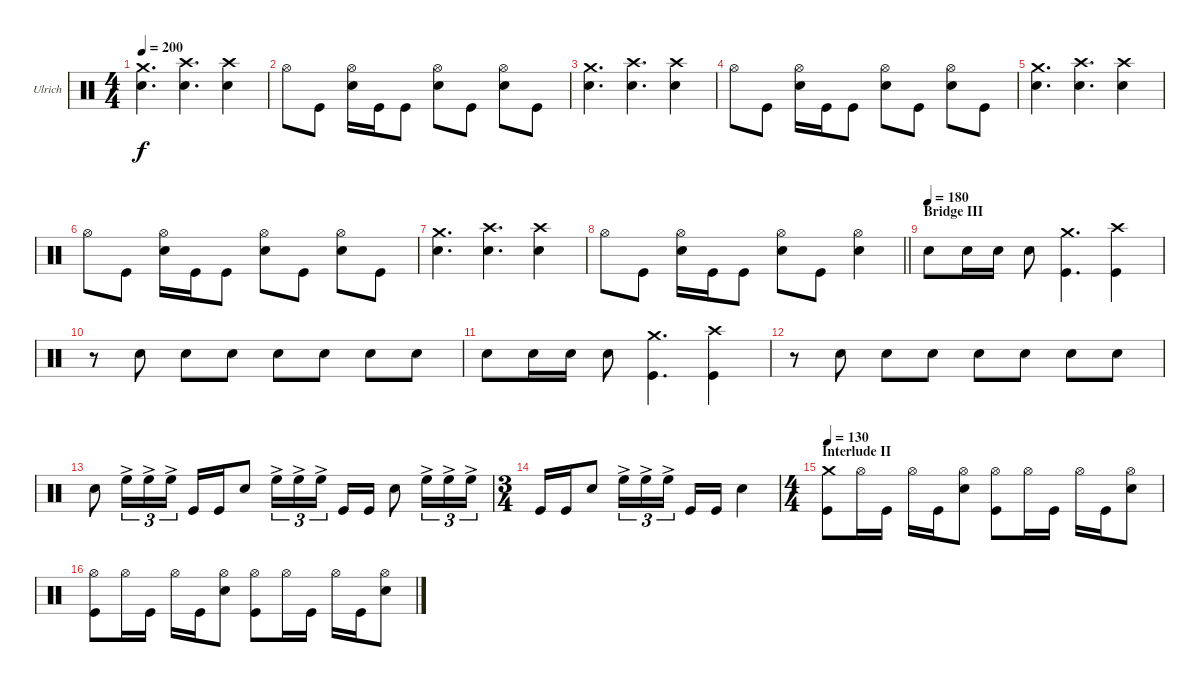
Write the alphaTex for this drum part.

\bracketExtendMode groupsimilarinstruments
\firstSystemTrackNameOrientation horizontal
\otherSystemsTrackNameOrientation horizontal
\track ("Drumkit" "Ulrich") {instrument percussion}
\staff {score}
\articulation defaults
\ts (4 4)
\tempo 200
\clef neutral
\ks c
("Crash medium (hit)" "Snare (hit) 2").4{d dy f} ("Crash high (hit)" "Snare (hit) 2").4{d} ("Crash high (hit)" "Snare (hit) 2").4 |
"Hi-Hat (open)".8 "Kick (hit)".8 ("Hi-Hat (open)" "Snare (hit) 2").16 "Kick (hit)".16 "Kick (hit)".8 ("Hi-Hat (open)" "Snare (hit) 2").8 "Kick (hit)".8 ("Hi-Hat (open)" "Snare (hit) 2").8 "Kick (hit)".8 |
("Crash medium (hit)" "Snare (hit) 2").4{d} ("Crash high (hit)" "Snare (hit) 2").4{d} ("Crash high (hit)" "Snare (hit) 2").4 |
"Hi-Hat (open)".8 "Kick (hit)".8 ("Hi-Hat (open)" "Snare (hit) 2").16 "Kick (hit)".16 "Kick (hit)".8 ("Hi-Hat (open)" "Snare (hit) 2").8 "Kick (hit)".8 ("Hi-Hat (open)" "Snare (hit) 2").8 "Kick (hit)".8 |
("Crash medium (hit)" "Snare (hit) 2").4{d} ("Crash high (hit)" "Snare (hit) 2").4{d} ("Crash high (hit)" "Snare (hit) 2").4 |
"Hi-Hat (open)".8 "Kick (hit)".8 ("Hi-Hat (open)" "Snare (hit) 2").16 "Kick (hit)".16 "Kick (hit)".8 ("Hi-Hat (open)" "Snare (hit) 2").8 "Kick (hit)".8 ("Hi-Hat (open)" "Snare (hit) 2").8 "Kick (hit)".8 |
("Crash medium (hit)" "Snare (hit) 2").4{d} ("Crash high (hit)" "Snare (hit) 2").4{d} ("Crash high (hit)" "Snare (hit) 2").4 |
\barLineRight lightlight "Hi-Hat (open)".8 "Kick (hit)".8
("Hi-Hat (open)" "Snare (hit) 2").16 "Kick (hit)".16 "Kick (hit)".8 ("Hi-Hat (open)" "Snare (hit) 2").8 "Kick (hit)".8 ("Hi-Hat (open)" "Snare (hit) 2").4 |
\section ("" "Bridge III")
\tempo (180)
"Snare (hit) 2".8 "Snare (hit) 2".16 "Snare (hit) 2".16 "Snare (hit) 2".8 ("Crash medium (hit)" "Kick (hit)").4{d} ("Crash high (hit)" "Kick (hit)").4 |
r.8 "Snare (hit) 2".8 "Snare (hit) 2".8 "Snare (hit) 2".8 "Snare (hit) 2".8 "Snare (hit) 2".8 "Snare (hit) 2".8 "Snare (hit) 2".8 |
"Snare (hit) 2".8 "Snare (hit) 2".16 "Snare (hit) 2".16 "Snare (hit) 2".8 ("Crash medium (hit)" "Kick (hit)").4{d} ("Crash high (hit)" "Kick (hit)").4 |
r.8 "Snare (hit) 2".8 "Snare (hit) 2".8 "Snare (hit) 2".8 "Snare (hit) 2".8 "Snare (hit) 2".8 "Snare (hit) 2".8 "Snare (hit) 2".8 |
"Snare (hit) 2".8 "High Floor Tom (hit)"{ac}.16{tu (3 2)} "High Floor Tom (hit)"{ac}.16{tu (3 2)} "High Floor Tom (hit)"{ac}.16{tu (3 2)} "Kick (hit)".16 "Kick (hit)".16 "Snare (hit) 2".8 "High Floor Tom (hit)"{ac}.16{tu (3 2)} "High Floor Tom (hit)"{ac}.16{tu (3 2)} "High Floor Tom (hit)"{ac}.16{tu (3 2)} "Kick (hit)".16 "Kick (hit)".16 "Snare (hit) 2".8 "High Floor Tom (hit)"{ac}.16{tu (3 2)} "High Floor Tom (hit)"{ac}.16{tu (3 2)} "High Floor Tom (hit)"{ac}.16{tu (3 2)} |
\ts (3 4)
\beaming (8 2 2 2)
"Kick (hit)".16 "Kick (hit)".16 "Snare (hit) 2".8 "High Floor Tom (hit)"{ac}.16{tu (3 2)} "High Floor Tom (hit)"{ac}.16{tu (3 2)} "High Floor Tom (hit)"{ac}.16{tu (3 2)} "Kick (hit)".16 "Kick (hit)".16 "Snare (hit) 2".4 |
\ts (4 4)
\beaming (8 2 2 2 2)
\section ("" "Interlude II")
\tempo 130
("Crash medium (hit)" "Kick (hit)").8 "Hi-Hat (open)".16 "Kick (hit)".16 "Hi-Hat (open)".16 "Kick (hit)".16 ("Hi-Hat (open)" "Snare (hit) 2").8 ("Hi-Hat (open)" "Kick (hit)").8 "Hi-Hat (open)".16 "Kick (hit)".16 "Hi-Hat (open)".16 "Kick (hit)".16 ("Hi-Hat (open)" "Snare (hit) 2").8 |
("Hi-Hat (open)" "Kick (hit)").8 "Hi-Hat (open)".16 "Kick (hit)".16 "Hi-Hat (open)".16 "Kick (hit)".16 ("Hi-Hat (open)" "Snare (hit) 2").8 ("Hi-Hat (open)" "Kick (hit)").8 "Hi-Hat (open)".16 "Kick (hit)".16 "Hi-Hat (open)".16 "Kick (hit)".16 ("Hi-Hat (open)" "Snare (hit) 2").8
